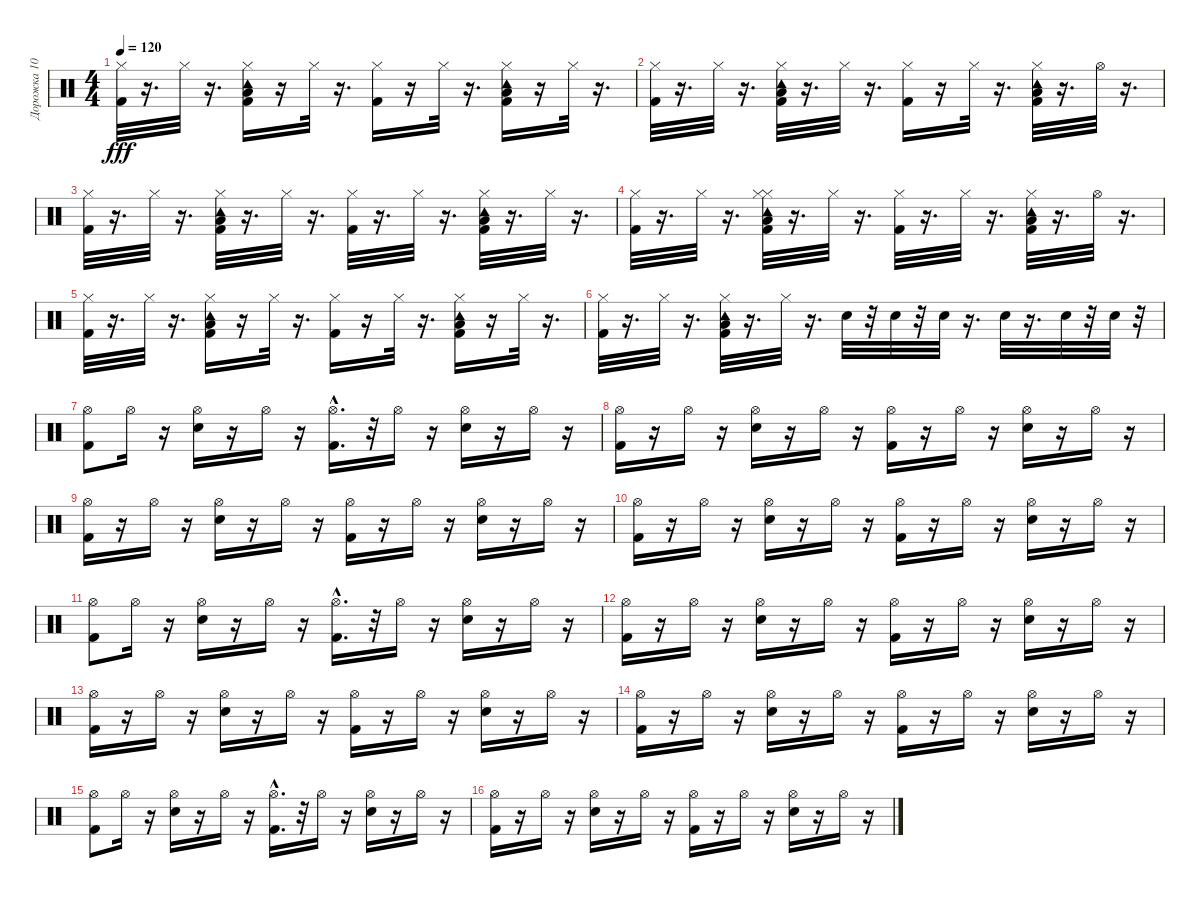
\track ("Дорожка 10" "Дорожка 10") {instrument percussion}
\staff {score}
\articulation defaults
\ts (4 4)
\tempo 120
\clef neutral
\ks c
("Kick (hit) 2" "Hi-Hat (closed)").32{dy fff} r.16{d} "Hi-Hat (closed)".32 r.16{d} ("Low Floor Tom (hit)" "Tambourine (hit)" "Kick (hit) 2" "Hi-Hat (closed)").16 r.16 "Hi-Hat (closed)".32 r.16{d} ("Kick (hit) 2" "Hi-Hat (closed)").16 r.16 "Hi-Hat (closed)".32 r.16{d} ("Low Floor Tom (hit)" "Tambourine (hit)" "Kick (hit) 2" "Hi-Hat (closed)").16 r.16 "Hi-Hat (closed)".32 r.16{d} |
("Kick (hit) 2" "Hi-Hat (closed)").32 r.16{d} "Hi-Hat (closed)".32 r.16{d} ("Low Floor Tom (hit)" "Tambourine (hit)" "Kick (hit) 2" "Hi-Hat (closed)").32 r.16{d} "Hi-Hat (closed)".32 r.16{d} ("Kick (hit) 2" "Hi-Hat (closed)").16 r.16 "Hi-Hat (closed)".32 r.16{d} ("Tambourine (hit)" "Kick (hit) 2" "Hi-Hat (closed)" "Low Floor Tom (hit)").32 r.16{d} "Hi-Hat (open)".32 r.16{d} |
("Kick (hit) 2" "Hi-Hat (closed)").32 r.16{d} "Hi-Hat (closed)".32 r.16{d} ("Tambourine (hit)" "Kick (hit) 2" "Hi-Hat (closed)" "Low Floor Tom (hit)").32 r.16{d} "Hi-Hat (closed)".32 r.16{d} ("Kick (hit) 2" "Hi-Hat (closed)").32 r.16{d} "Hi-Hat (closed)".32 r.16{d} ("Tambourine (hit)" "Kick (hit) 2" "Hi-Hat (closed)" "Low Floor Tom (hit)").32 r.16{d} "Hi-Hat (closed)".32 r.16{d} |
("Kick (hit) 2" "Hi-Hat (closed)").32 r.16{d} "Hi-Hat (closed)".32 r.16{d} ("Low Floor Tom (hit)" "Tambourine (hit)" "Kick (hit) 2" "Hi-Hat (closed)" "Hi-Hat (closed)").32 r.16{d} "Hi-Hat (closed)".32 r.16{d} ("Kick (hit) 2" "Hi-Hat (closed)").32 r.16{d} "Hi-Hat (closed)".32 r.16{d} ("Low Floor Tom (hit)" "Tambourine (hit)" "Kick (hit) 2" "Hi-Hat (closed)").32 r.16{d} "Hi-Hat (open)".32 r.16{d} |
("Kick (hit) 2" "Hi-Hat (closed)").32 r.16{d} "Hi-Hat (closed)".32 r.16{d} ("Low Floor Tom (hit)" "Tambourine (hit)" "Kick (hit) 2" "Hi-Hat (closed)").16 r.16 "Hi-Hat (closed)".32 r.16{d} ("Kick (hit) 2" "Hi-Hat (closed)").16 r.16 "Hi-Hat (closed)".32 r.16{d} ("Low Floor Tom (hit)" "Tambourine (hit)" "Kick (hit) 2" "Hi-Hat (closed)").16 r.16 "Hi-Hat (closed)".32 r.16{d} |
("Kick (hit) 2" "Hi-Hat (closed)").32 r.16{d} "Hi-Hat (closed)".32 r.16{d} ("Low Floor Tom (hit)" "Tambourine (hit)" "Kick (hit) 2" "Hi-Hat (closed)").32 r.16{d} "Hi-Hat (closed)".32 r.16{d} "Snare (hit) 2".32 r.32 "Snare (hit) 2".32 r.32 "Snare (hit) 2".32 r.16{d} "Snare (hit) 2".32 r.16{d} "Snare (hit) 2".32 r.32 "Snare (hit) 2".32 r.32 |
("Hi-Hat (open)" "Kick (hit) 2").8 "Hi-Hat (open)".16 r.16 ("Hi-Hat (open)" "Snare (hit) 2").16 r.16 "Hi-Hat (open)".16 r.16 ("Hi-Hat (open)" "Kick (hit) 2"{hac}).16{d} r.32 "Hi-Hat (open)".16 r.16 ("Hi-Hat (open)" "Snare (hit) 2").16 r.16 "Hi-Hat (open)".16 r.16 |
("Hi-Hat (open)" "Kick (hit) 2").16 r.16 "Hi-Hat (open)".16 r.16 ("Hi-Hat (open)" "Snare (hit) 2").16 r.16 "Hi-Hat (open)".16 r.16 ("Hi-Hat (open)" "Kick (hit) 2").16 r.16 "Hi-Hat (open)".16 r.16 ("Hi-Hat (open)" "Snare (hit) 2").16 r.16 "Hi-Hat (open)".16 r.16 |
("Hi-Hat (open)" "Kick (hit) 2").16 r.16 "Hi-Hat (open)".16 r.16 ("Hi-Hat (open)" "Snare (hit) 2").16 r.16 "Hi-Hat (open)".16 r.16 ("Hi-Hat (open)" "Kick (hit) 2").16 r.16 "Hi-Hat (open)".16 r.16 ("Snare (hit) 2" "Hi-Hat (open)").16 r.16 "Hi-Hat (open)".16 r.16 |
("Hi-Hat (open)" "Kick (hit) 2").16 r.16 "Hi-Hat (open)".16 r.16 ("Hi-Hat (open)" "Snare (hit) 2").16 r.16 "Hi-Hat (open)".16 r.16 ("Hi-Hat (open)" "Kick (hit) 2").16 r.16 "Hi-Hat (open)".16 r.16 ("Hi-Hat (open)" "Snare (hit) 2").16 r.16 "Hi-Hat (open)".16 r.16 |
("Hi-Hat (open)" "Kick (hit) 2").8 "Hi-Hat (open)".16 r.16 ("Hi-Hat (open)" "Snare (hit) 2").16 r.16 "Hi-Hat (open)".16 r.16 ("Hi-Hat (open)" "Kick (hit) 2"{hac}).16{d} r.32 "Hi-Hat (open)".16 r.16 ("Hi-Hat (open)" "Snare (hit) 2").16 r.16 "Hi-Hat (open)".16 r.16 |
("Hi-Hat (open)" "Kick (hit) 2").16 r.16 "Hi-Hat (open)".16 r.16 ("Hi-Hat (open)" "Snare (hit) 2").16 r.16 "Hi-Hat (open)".16 r.16 ("Hi-Hat (open)" "Kick (hit) 2").16 r.16 "Hi-Hat (open)".16 r.16 ("Hi-Hat (open)" "Snare (hit) 2").16 r.16 "Hi-Hat (open)".16 r.16 |
("Hi-Hat (open)" "Kick (hit) 2").16 r.16 "Hi-Hat (open)".16 r.16 ("Hi-Hat (open)" "Snare (hit) 2").16 r.16 "Hi-Hat (open)".16 r.16 ("Hi-Hat (open)" "Kick (hit) 2").16 r.16 "Hi-Hat (open)".16 r.16 ("Snare (hit) 2" "Hi-Hat (open)").16 r.16 "Hi-Hat (open)".16 r.16 |
("Hi-Hat (open)" "Kick (hit) 2").16 r.16 "Hi-Hat (open)".16 r.16 ("Hi-Hat (open)" "Snare (hit) 2").16 r.16 "Hi-Hat (open)".16 r.16 ("Hi-Hat (open)" "Kick (hit) 2").16 r.16 "Hi-Hat (open)".16 r.16 ("Hi-Hat (open)" "Snare (hit) 2").16 r.16 "Hi-Hat (open)".16 r.16 |
("Hi-Hat (open)" "Kick (hit) 2").8 "Hi-Hat (open)".16 r.16 ("Hi-Hat (open)" "Snare (hit) 2").16 r.16 "Hi-Hat (open)".16 r.16 ("Hi-Hat (open)" "Kick (hit) 2"{hac}).16{d} r.32 "Hi-Hat (open)".16 r.16 ("Hi-Hat (open)" "Snare (hit) 2").16 r.16 "Hi-Hat (open)".16 r.16 |
("Hi-Hat (open)" "Kick (hit) 2").16 r.16 "Hi-Hat (open)".16 r.16 ("Hi-Hat (open)" "Snare (hit) 2").16 r.16 "Hi-Hat (open)".16 r.16 ("Hi-Hat (open)" "Kick (hit) 2").16 r.16 "Hi-Hat (open)".16 r.16 ("Hi-Hat (open)" "Snare (hit) 2").16 r.16 "Hi-Hat (open)".16 r.16
